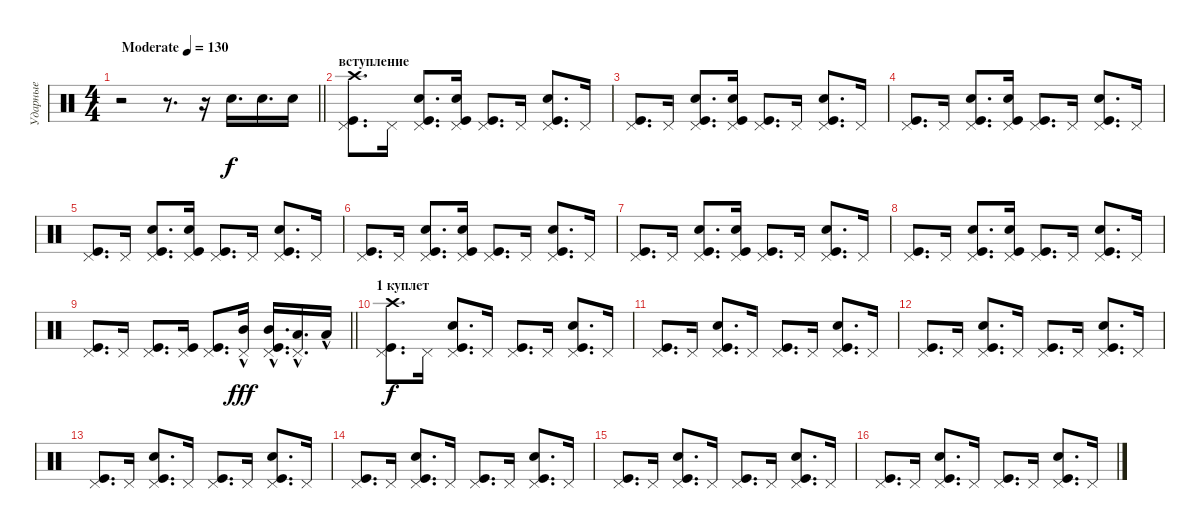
\track ("Ударные" "Ударные") {instrument percussion}
\staff {score}
\articulation defaults
\ts (4 4)
\tempo (130 "Moderate")
\clef neutral
\barLineRight lightlight
\ks c
r.2{dy f} r.8{d} r.16 "Snare (hit) 2".16{d} "Snare (hit) 2".16{d} "Snare (hit) 2".16 |
\section ("" "вступление")
("Pedal Hi-Hat (hit)" "Kick (hit)" "Crash high (hit)").8{d} "Pedal Hi-Hat (hit)".16 ("Pedal Hi-Hat (hit)" "Kick (hit)" "Snare (hit) 2").8{d} ("Pedal Hi-Hat (hit)" "Snare (hit) 2" "Kick (hit)").16 ("Pedal Hi-Hat (hit)" "Kick (hit)").8{d} "Pedal Hi-Hat (hit)".16 ("Pedal Hi-Hat (hit)" "Kick (hit)" "Snare (hit) 2").8{d} "Pedal Hi-Hat (hit)".16 |
("Pedal Hi-Hat (hit)" "Kick (hit)").8{d} "Pedal Hi-Hat (hit)".16 ("Pedal Hi-Hat (hit)" "Kick (hit)" "Snare (hit) 2").8{d} ("Pedal Hi-Hat (hit)" "Snare (hit) 2" "Kick (hit)").16 ("Pedal Hi-Hat (hit)" "Kick (hit)").8{d} "Pedal Hi-Hat (hit)".16 ("Pedal Hi-Hat (hit)" "Kick (hit)" "Snare (hit) 2").8{d} "Pedal Hi-Hat (hit)".16 |
("Pedal Hi-Hat (hit)" "Kick (hit)").8{d} "Pedal Hi-Hat (hit)".16 ("Pedal Hi-Hat (hit)" "Kick (hit)" "Snare (hit) 2").8{d} ("Pedal Hi-Hat (hit)" "Snare (hit) 2" "Kick (hit)").16 ("Pedal Hi-Hat (hit)" "Kick (hit)").8{d} "Pedal Hi-Hat (hit)".16 ("Pedal Hi-Hat (hit)" "Kick (hit)" "Snare (hit) 2").8{d} "Pedal Hi-Hat (hit)".16 |
("Pedal Hi-Hat (hit)" "Kick (hit)").8{d} "Pedal Hi-Hat (hit)".16 ("Pedal Hi-Hat (hit)" "Kick (hit)" "Snare (hit) 2").8{d} ("Pedal Hi-Hat (hit)" "Snare (hit) 2" "Kick (hit)").16 ("Pedal Hi-Hat (hit)" "Kick (hit)").8{d} "Pedal Hi-Hat (hit)".16 ("Pedal Hi-Hat (hit)" "Kick (hit)" "Snare (hit) 2").8{d} "Pedal Hi-Hat (hit)".16 |
("Pedal Hi-Hat (hit)" "Kick (hit)").8{d} "Pedal Hi-Hat (hit)".16 ("Pedal Hi-Hat (hit)" "Kick (hit)" "Snare (hit) 2").8{d} ("Pedal Hi-Hat (hit)" "Snare (hit) 2" "Kick (hit)").16 ("Pedal Hi-Hat (hit)" "Kick (hit)").8{d} "Pedal Hi-Hat (hit)".16 ("Pedal Hi-Hat (hit)" "Kick (hit)" "Snare (hit) 2").8{d} "Pedal Hi-Hat (hit)".16 |
("Pedal Hi-Hat (hit)" "Kick (hit)").8{d} "Pedal Hi-Hat (hit)".16 ("Pedal Hi-Hat (hit)" "Kick (hit)" "Snare (hit) 2").8{d} ("Pedal Hi-Hat (hit)" "Snare (hit) 2" "Kick (hit)").16 ("Pedal Hi-Hat (hit)" "Kick (hit)").8{d} "Pedal Hi-Hat (hit)".16 ("Pedal Hi-Hat (hit)" "Kick (hit)" "Snare (hit) 2").8{d} "Pedal Hi-Hat (hit)".16 |
("Pedal Hi-Hat (hit)" "Kick (hit)").8{d} "Pedal Hi-Hat (hit)".16 ("Pedal Hi-Hat (hit)" "Kick (hit)" "Snare (hit) 2").8{d} ("Pedal Hi-Hat (hit)" "Snare (hit) 2" "Kick (hit)").16 ("Pedal Hi-Hat (hit)" "Kick (hit)").8{d} "Pedal Hi-Hat (hit)".16 ("Pedal Hi-Hat (hit)" "Kick (hit)" "Snare (hit) 2").8{d} "Pedal Hi-Hat (hit)".16 |
\barLineRight lightlight
("Pedal Hi-Hat (hit)" "Kick (hit)").8{d} "Pedal Hi-Hat (hit)".16 ("Pedal Hi-Hat (hit)" "Kick (hit)").8{d} ("Pedal Hi-Hat (hit)" "Kick (hit)").16 ("Pedal Hi-Hat (hit)" "Kick (hit)").8{d} ("Pedal Hi-Hat (hit)" "Mid Tom (hit)"{hac}).16{dy fff} ("Pedal Hi-Hat (hit)" "Kick (hit)" "Mid Tom (hit)"{hac}).16{d} ("Pedal Hi-Hat (hit)" "Low Tom (hit)"{hac}).16{d} "Low Tom (hit)"{hac}.16 |
\section ("" "1 куплет")
("Pedal Hi-Hat (hit)" "Kick (hit)" "Crash high (hit)").8{d dy f} "Pedal Hi-Hat (hit)".16 ("Pedal Hi-Hat (hit)" "Kick (hit)" "Snare (hit) 2").8{d} "Pedal Hi-Hat (hit)".16 ("Pedal Hi-Hat (hit)" "Kick (hit)").8{d} "Pedal Hi-Hat (hit)".16 ("Pedal Hi-Hat (hit)" "Kick (hit)" "Snare (hit) 2").8{d} "Pedal Hi-Hat (hit)".16 |
("Pedal Hi-Hat (hit)" "Kick (hit)").8{d} "Pedal Hi-Hat (hit)".16 ("Pedal Hi-Hat (hit)" "Kick (hit)" "Snare (hit) 2").8{d} "Pedal Hi-Hat (hit)".16 ("Pedal Hi-Hat (hit)" "Kick (hit)").8{d} "Pedal Hi-Hat (hit)".16 ("Pedal Hi-Hat (hit)" "Kick (hit)" "Snare (hit) 2").8{d} "Pedal Hi-Hat (hit)".16 |
("Pedal Hi-Hat (hit)" "Kick (hit)").8{d} "Pedal Hi-Hat (hit)".16 ("Pedal Hi-Hat (hit)" "Kick (hit)" "Snare (hit) 2").8{d} "Pedal Hi-Hat (hit)".16 ("Pedal Hi-Hat (hit)" "Kick (hit)").8{d} "Pedal Hi-Hat (hit)".16 ("Pedal Hi-Hat (hit)" "Kick (hit)" "Snare (hit) 2").8{d} "Pedal Hi-Hat (hit)".16 |
("Pedal Hi-Hat (hit)" "Kick (hit)").8{d} "Pedal Hi-Hat (hit)".16 ("Pedal Hi-Hat (hit)" "Kick (hit)" "Snare (hit) 2").8{d} "Pedal Hi-Hat (hit)".16 ("Pedal Hi-Hat (hit)" "Kick (hit)").8{d} "Pedal Hi-Hat (hit)".16 ("Pedal Hi-Hat (hit)" "Kick (hit)" "Snare (hit) 2").8{d} "Pedal Hi-Hat (hit)".16 |
("Pedal Hi-Hat (hit)" "Kick (hit)").8{d} "Pedal Hi-Hat (hit)".16 ("Pedal Hi-Hat (hit)" "Kick (hit)" "Snare (hit) 2").8{d} "Pedal Hi-Hat (hit)".16 ("Pedal Hi-Hat (hit)" "Kick (hit)").8{d} "Pedal Hi-Hat (hit)".16 ("Pedal Hi-Hat (hit)" "Kick (hit)" "Snare (hit) 2").8{d} "Pedal Hi-Hat (hit)".16 |
("Pedal Hi-Hat (hit)" "Kick (hit)").8{d} "Pedal Hi-Hat (hit)".16 ("Pedal Hi-Hat (hit)" "Kick (hit)" "Snare (hit) 2").8{d} "Pedal Hi-Hat (hit)".16 ("Pedal Hi-Hat (hit)" "Kick (hit)").8{d} "Pedal Hi-Hat (hit)".16 ("Pedal Hi-Hat (hit)" "Kick (hit)" "Snare (hit) 2").8{d} "Pedal Hi-Hat (hit)".16 |
("Pedal Hi-Hat (hit)" "Kick (hit)").8{d} "Pedal Hi-Hat (hit)".16 ("Pedal Hi-Hat (hit)" "Kick (hit)" "Snare (hit) 2").8{d} "Pedal Hi-Hat (hit)".16 ("Pedal Hi-Hat (hit)" "Kick (hit)").8{d} "Pedal Hi-Hat (hit)".16 ("Pedal Hi-Hat (hit)" "Kick (hit)" "Snare (hit) 2").8{d} "Pedal Hi-Hat (hit)".16
